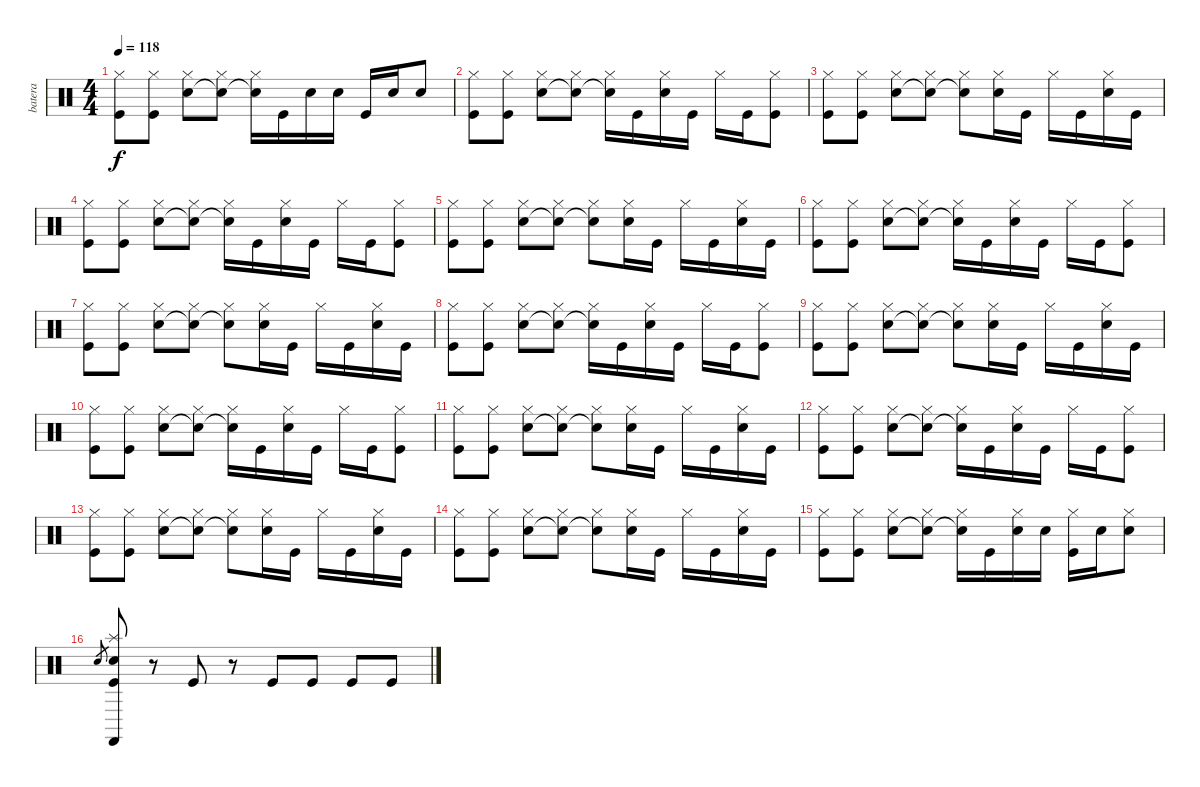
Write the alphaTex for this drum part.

\track ("batera" "batera") {instrument percussion}
\staff {score}
\articulation defaults
\ts (4 4)
\tempo 118
\clef neutral
\ks c
("Hi-Hat (closed)" "Kick (hit)").8{dy f} ("Hi-Hat (closed)" "Kick (hit)").8 ("Hi-Hat (closed)" "Snare (hit) 2").8 ("Hi-Hat (closed)" "Snare (hit)"{t}).8 ("Hi-Hat (closed)" "Snare (hit)"{t}).16 "Kick (hit)".16 "Snare (hit) 2".16 "Snare (hit) 2".16 "Kick (hit)".16 "Snare (hit) 2".16 "Snare (hit) 2".8 |
\section ("" "")
("Hi-Hat (closed)" "Kick (hit)").8 ("Hi-Hat (closed)" "Kick (hit)").8 ("Hi-Hat (closed)" "Snare (hit) 2").8 ("Hi-Hat (closed)" "Snare (hit)"{t}).8 ("Hi-Hat (closed)" "Snare (hit)"{t}).16 "Kick (hit)".16 ("Hi-Hat (closed)" "Snare (hit) 2").16 "Kick (hit)".16 "Hi-Hat (closed)".16 "Kick (hit)".16 ("Hi-Hat (closed)" "Kick (hit)").8 |
("Hi-Hat (closed)" "Kick (hit)").8 ("Hi-Hat (closed)" "Kick (hit)").8 ("Hi-Hat (closed)" "Snare (hit) 2").8 ("Hi-Hat (closed)" "Snare (hit)"{t}).8 ("Hi-Hat (closed)" "Snare (hit)"{t}).8 ("Hi-Hat (closed)" "Snare (hit) 2").16 "Kick (hit)".16 "Hi-Hat (closed)".16 "Kick (hit)".16 ("Hi-Hat (closed)" "Snare (hit) 2").16 "Kick (hit)".16 |
("Hi-Hat (closed)" "Kick (hit)").8 ("Hi-Hat (closed)" "Kick (hit)").8 ("Hi-Hat (closed)" "Snare (hit) 2").8 ("Hi-Hat (closed)" "Snare (hit)"{t}).8 ("Hi-Hat (closed)" "Snare (hit)"{t}).16 "Kick (hit)".16 ("Hi-Hat (closed)" "Snare (hit) 2").16 "Kick (hit)".16 "Hi-Hat (closed)".16 "Kick (hit)".16 ("Hi-Hat (closed)" "Kick (hit)").8 |
("Hi-Hat (closed)" "Kick (hit)").8 ("Hi-Hat (closed)" "Kick (hit)").8 ("Hi-Hat (closed)" "Snare (hit) 2").8 ("Hi-Hat (closed)" "Snare (hit)"{t}).8 ("Hi-Hat (closed)" "Snare (hit)"{t}).8 ("Hi-Hat (closed)" "Snare (hit) 2").16 "Kick (hit)".16 "Hi-Hat (closed)".16 "Kick (hit)".16 ("Hi-Hat (closed)" "Snare (hit) 2").16 "Kick (hit)".16 |
\section ("" "")
("Hi-Hat (closed)" "Kick (hit)").8 ("Hi-Hat (closed)" "Kick (hit)").8 ("Hi-Hat (closed)" "Snare (hit) 2").8 ("Hi-Hat (closed)" "Snare (hit)"{t}).8 ("Hi-Hat (closed)" "Snare (hit)"{t}).16 "Kick (hit)".16 ("Hi-Hat (closed)" "Snare (hit) 2").16 "Kick (hit)".16 "Hi-Hat (closed)".16 "Kick (hit)".16 ("Hi-Hat (closed)" "Kick (hit)").8 |
("Hi-Hat (closed)" "Kick (hit)").8 ("Hi-Hat (closed)" "Kick (hit)").8 ("Hi-Hat (closed)" "Snare (hit) 2").8 ("Hi-Hat (closed)" "Snare (hit)"{t}).8 ("Hi-Hat (closed)" "Snare (hit)"{t}).8 ("Hi-Hat (closed)" "Snare (hit) 2").16 "Kick (hit)".16 "Hi-Hat (closed)".16 "Kick (hit)".16 ("Hi-Hat (closed)" "Snare (hit) 2").16 "Kick (hit)".16 |
("Hi-Hat (closed)" "Kick (hit)").8 ("Hi-Hat (closed)" "Kick (hit)").8 ("Hi-Hat (closed)" "Snare (hit) 2").8 ("Hi-Hat (closed)" "Snare (hit)"{t}).8 ("Hi-Hat (closed)" "Snare (hit)"{t}).16 "Kick (hit)".16 ("Hi-Hat (closed)" "Snare (hit) 2").16 "Kick (hit)".16 "Hi-Hat (closed)".16 "Kick (hit)".16 ("Hi-Hat (closed)" "Kick (hit)").8 |
("Hi-Hat (closed)" "Kick (hit)").8 ("Hi-Hat (closed)" "Kick (hit)").8 ("Hi-Hat (closed)" "Snare (hit) 2").8 ("Hi-Hat (closed)" "Snare (hit)"{t}).8 ("Hi-Hat (closed)" "Snare (hit)"{t}).8 ("Hi-Hat (closed)" "Snare (hit) 2").16 "Kick (hit)".16 "Hi-Hat (closed)".16 "Kick (hit)".16 ("Hi-Hat (closed)" "Snare (hit) 2").16 "Kick (hit)".16 |
("Hi-Hat (closed)" "Kick (hit)").8 ("Hi-Hat (closed)" "Kick (hit)").8 ("Hi-Hat (closed)" "Snare (hit) 2").8 ("Hi-Hat (closed)" "Snare (hit)"{t}).8 ("Hi-Hat (closed)" "Snare (hit)"{t}).16 "Kick (hit)".16 ("Hi-Hat (closed)" "Snare (hit) 2").16 "Kick (hit)".16 "Hi-Hat (closed)".16 "Kick (hit)".16 ("Hi-Hat (closed)" "Kick (hit)").8 |
("Hi-Hat (closed)" "Kick (hit)").8 ("Hi-Hat (closed)" "Kick (hit)").8 ("Hi-Hat (closed)" "Snare (hit) 2").8 ("Hi-Hat (closed)" "Snare (hit)"{t}).8 ("Hi-Hat (closed)" "Snare (hit)"{t}).8 ("Hi-Hat (closed)" "Snare (hit) 2").16 "Kick (hit)".16 "Hi-Hat (closed)".16 "Kick (hit)".16 ("Hi-Hat (closed)" "Snare (hit) 2").16 "Kick (hit)".16 |
("Hi-Hat (closed)" "Kick (hit)").8 ("Hi-Hat (closed)" "Kick (hit)").8 ("Hi-Hat (closed)" "Snare (hit) 2").8 ("Hi-Hat (closed)" "Snare (hit)"{t}).8 ("Hi-Hat (closed)" "Snare (hit)"{t}).16 "Kick (hit)".16 ("Hi-Hat (closed)" "Snare (hit) 2").16 "Kick (hit)".16 "Hi-Hat (closed)".16 "Kick (hit)".16 ("Hi-Hat (closed)" "Kick (hit)").8 |
("Hi-Hat (closed)" "Kick (hit)").8 ("Hi-Hat (closed)" "Kick (hit)").8 ("Hi-Hat (closed)" "Snare (hit) 2").8 ("Hi-Hat (closed)" "Snare (hit)"{t}).8 ("Hi-Hat (closed)" "Snare (hit)"{t}).8 ("Hi-Hat (closed)" "Snare (hit) 2").16 "Kick (hit)".16 "Hi-Hat (closed)".16 "Kick (hit)".16 ("Hi-Hat (closed)" "Snare (hit) 2").16 "Kick (hit)".16 |
("Hi-Hat (closed)" "Kick (hit)").8 ("Hi-Hat (closed)" "Kick (hit)").8 ("Hi-Hat (closed)" "Snare (hit) 2").8 ("Hi-Hat (closed)" "Snare (hit)"{t}).8 ("Hi-Hat (closed)" "Snare (hit)"{t}).8 ("Hi-Hat (closed)" "Snare (hit) 2").16 "Kick (hit)".16 "Hi-Hat (closed)".16 "Kick (hit)".16 ("Hi-Hat (closed)" "Snare (hit) 2").16 "Kick (hit)".16 |
("Hi-Hat (closed)" "Kick (hit)").8 ("Hi-Hat (closed)" "Kick (hit)").8 ("Hi-Hat (closed)" "Snare (hit) 2").8 ("Hi-Hat (closed)" "Snare (hit)"{t}).8 ("Hi-Hat (closed)" "Snare (hit)"{t}).16 "Kick (hit)".16 ("Hi-Hat (closed)" "Snare (hit) 2").16 "Snare (hit) 2".16 ("Hi-Hat (closed)" "Kick (hit)").16 "Snare (hit) 2".16 ("Hi-Hat (closed)" "Snare (hit) 2").8 |
"Snare (hit) 2".8{gr} ("Splash (hit)" "Castanets (hit)" "Snare (hit) 2" "Kick (hit)").8 r.8 "Kick (hit)".8 r.8 "Kick (hit)".8 "Kick (hit)".8 "Kick (hit)".8 "Kick (hit)".8
